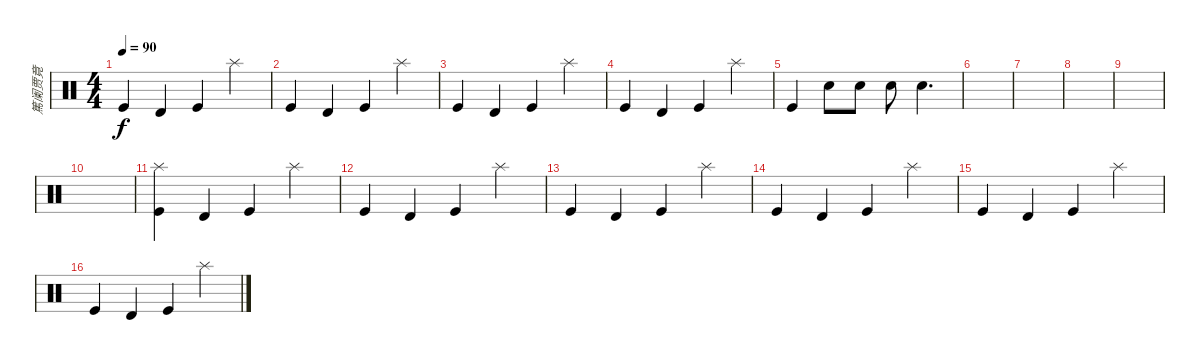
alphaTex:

\track ("篤阑贾竟" "篤阑贾竟") {instrument percussion}
\staff {score}
\articulation defaults
\ts (4 4)
\tempo 90
\clef neutral
\ks c "Kick (hit)".4{dy f} "Timbale high (hit)".4 "Kick (hit)".4 "Splash (hit)".4
|
"Kick (hit)".4 "Timbale high (hit)".4 "Kick (hit)".4 "Splash (hit)".4 |
"Kick (hit)".4 "Timbale high (hit)".4 "Kick (hit)".4 "Splash (hit)".4 |
"Kick (hit)".4 "Timbale high (hit)".4 "Kick (hit)".4 "Splash (hit)".4 |
"Kick (hit)".4 "Snare (hit) 2".8 "Snare (hit) 2".8 "Snare (hit) 2".8 "Snare (hit) 2".4{d} |
|
|
|
|
|
("Kick (hit)" "Splash (hit)").4 "Timbale high (hit)".4 "Kick (hit)".4 "Splash (hit)".4 |
"Kick (hit)".4 "Timbale high (hit)".4 "Kick (hit)".4 "Splash (hit)".4 |
"Kick (hit)".4 "Timbale high (hit)".4 "Kick (hit)".4 "Splash (hit)".4 |
"Kick (hit)".4 "Timbale high (hit)".4 "Kick (hit)".4 "Splash (hit)".4 |
"Kick (hit)".4 "Timbale high (hit)".4 "Kick (hit)".4 "Splash (hit)".4 |
"Kick (hit)".4 "Timbale high (hit)".4 "Kick (hit)".4 "Splash (hit)".4
